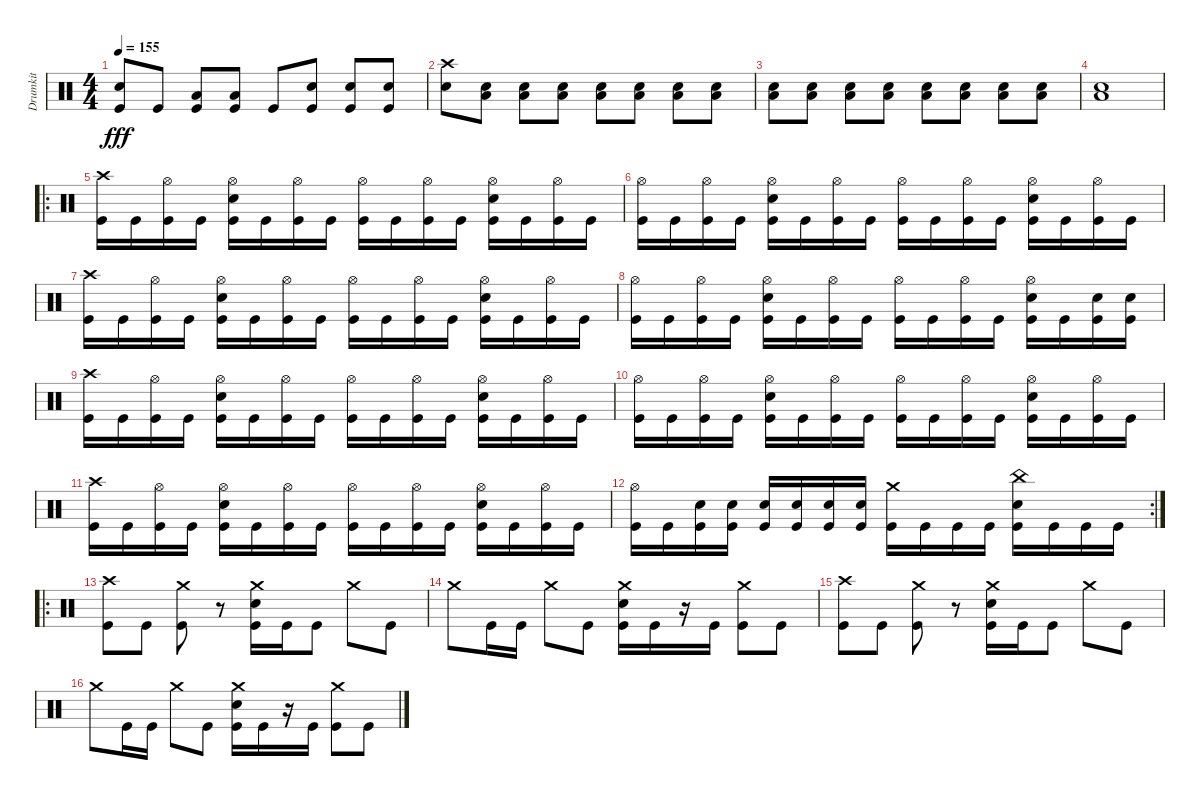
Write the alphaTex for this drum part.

\track ("Drumkit" "Drumkit") {instrument percussion}
\staff {score}
\articulation defaults
\ts (4 4)
\tempo 155
\clef neutral
\ks c
("Snare (hit) 2" "Kick (hit)").8{dy fff} "Kick (hit)".8 ("Low Tom (hit)" "Kick (hit)").8 ("Low Tom (hit)" "Kick (hit)").8 "Kick (hit)".8 ("Snare (hit) 2" "Kick (hit)").8 ("Snare (hit) 2" "Kick (hit)").8 ("Snare (hit) 2" "Kick (hit)").8 |
("Crash high (hit)" "Snare (hit) 2").8 ("Low Floor Tom (hit)" "Snare (hit) 2").8 ("Low Floor Tom (hit)" "Snare (hit) 2").8 ("Low Floor Tom (hit)" "Snare (hit) 2").8 ("Low Floor Tom (hit)" "Snare (hit) 2").8 ("Low Floor Tom (hit)" "Snare (hit) 2").8 ("Low Floor Tom (hit)" "Snare (hit) 2").8 ("Low Floor Tom (hit)" "Snare (hit) 2").8 |
("Low Floor Tom (hit)" "Snare (hit) 2").8 ("Low Floor Tom (hit)" "Snare (hit) 2").8 ("Low Floor Tom (hit)" "Snare (hit) 2").8 ("Low Floor Tom (hit)" "Snare (hit) 2").8 ("Low Floor Tom (hit)" "Snare (hit) 2").8 ("Low Floor Tom (hit)" "Snare (hit) 2").8 ("Low Floor Tom (hit)" "Snare (hit) 2").8 ("Low Floor Tom (hit)" "Snare (hit) 2").8 |
("Low Floor Tom (hit)" "Snare (hit) 2").1 |
\ro
("Crash high (hit)" "Kick (hit)").16 "Kick (hit)".16 ("Hi-Hat (open)" "Kick (hit)").16 "Kick (hit)".16 ("Hi-Hat (open)" "Snare (hit) 2" "Kick (hit)").16 "Kick (hit)".16 ("Hi-Hat (open)" "Kick (hit)").16 "Kick (hit)".16 ("Hi-Hat (open)" "Kick (hit)").16 "Kick (hit)".16 ("Hi-Hat (open)" "Kick (hit)").16 "Kick (hit)".16 ("Hi-Hat (open)" "Snare (hit) 2" "Kick (hit)").16 "Kick (hit)".16 ("Hi-Hat (open)" "Kick (hit)").16 "Kick (hit)".16 |
("Hi-Hat (open)" "Kick (hit)").16 "Kick (hit)".16 ("Hi-Hat (open)" "Kick (hit)").16 "Kick (hit)".16 ("Hi-Hat (open)" "Snare (hit) 2" "Kick (hit)").16 "Kick (hit)".16 ("Hi-Hat (open)" "Kick (hit)").16 "Kick (hit)".16 ("Hi-Hat (open)" "Kick (hit)").16 "Kick (hit)".16 ("Hi-Hat (open)" "Kick (hit)").16 "Kick (hit)".16 ("Hi-Hat (open)" "Snare (hit) 2" "Kick (hit)").16 "Kick (hit)".16 ("Hi-Hat (open)" "Kick (hit)").16 "Kick (hit)".16 |
("Crash high (hit)" "Kick (hit)").16 "Kick (hit)".16 ("Hi-Hat (open)" "Kick (hit)").16 "Kick (hit)".16 ("Hi-Hat (open)" "Snare (hit) 2" "Kick (hit)").16 "Kick (hit)".16 ("Hi-Hat (open)" "Kick (hit)").16 "Kick (hit)".16 ("Hi-Hat (open)" "Kick (hit)").16 "Kick (hit)".16 ("Hi-Hat (open)" "Kick (hit)").16 "Kick (hit)".16 ("Hi-Hat (open)" "Snare (hit) 2" "Kick (hit)").16 "Kick (hit)".16 ("Hi-Hat (open)" "Kick (hit)").16 "Kick (hit)".16 |
("Hi-Hat (open)" "Kick (hit)").16 "Kick (hit)".16 ("Hi-Hat (open)" "Kick (hit)").16 "Kick (hit)".16 ("Hi-Hat (open)" "Snare (hit) 2" "Kick (hit)").16 "Kick (hit)".16 ("Hi-Hat (open)" "Kick (hit)").16 "Kick (hit)".16 ("Hi-Hat (open)" "Kick (hit)").16 "Kick (hit)".16 ("Hi-Hat (open)" "Kick (hit)").16 "Kick (hit)".16 ("Hi-Hat (open)" "Snare (hit) 2" "Kick (hit)").16 "Kick (hit)".16 ("Snare (hit) 2" "Kick (hit)").16 ("Snare (hit) 2" "Kick (hit)").16 |
("Crash high (hit)" "Kick (hit)").16 "Kick (hit)".16 ("Hi-Hat (open)" "Kick (hit)").16 "Kick (hit)".16 ("Hi-Hat (open)" "Snare (hit) 2" "Kick (hit)").16 "Kick (hit)".16 ("Hi-Hat (open)" "Kick (hit)").16 "Kick (hit)".16 ("Hi-Hat (open)" "Kick (hit)").16 "Kick (hit)".16 ("Hi-Hat (open)" "Kick (hit)").16 "Kick (hit)".16 ("Hi-Hat (open)" "Snare (hit) 2" "Kick (hit)").16 "Kick (hit)".16 ("Hi-Hat (open)" "Kick (hit)").16 "Kick (hit)".16 |
("Hi-Hat (open)" "Kick (hit)").16 "Kick (hit)".16 ("Hi-Hat (open)" "Kick (hit)").16 "Kick (hit)".16 ("Hi-Hat (open)" "Snare (hit) 2" "Kick (hit)").16 "Kick (hit)".16 ("Hi-Hat (open)" "Kick (hit)").16 "Kick (hit)".16 ("Hi-Hat (open)" "Kick (hit)").16 "Kick (hit)".16 ("Hi-Hat (open)" "Kick (hit)").16 "Kick (hit)".16 ("Hi-Hat (open)" "Snare (hit) 2" "Kick (hit)").16 "Kick (hit)".16 ("Hi-Hat (open)" "Kick (hit)").16 "Kick (hit)".16 |
("Crash high (hit)" "Kick (hit)").16 "Kick (hit)".16 ("Hi-Hat (open)" "Kick (hit)").16 "Kick (hit)".16 ("Hi-Hat (open)" "Snare (hit) 2" "Kick (hit)").16 "Kick (hit)".16 ("Hi-Hat (open)" "Kick (hit)").16 "Kick (hit)".16 ("Hi-Hat (open)" "Kick (hit)").16 "Kick (hit)".16 ("Hi-Hat (open)" "Kick (hit)").16 "Kick (hit)".16 ("Hi-Hat (open)" "Snare (hit) 2" "Kick (hit)").16 "Kick (hit)".16 ("Hi-Hat (open)" "Kick (hit)").16 "Kick (hit)".16 |
\rc 2
("Hi-Hat (open)" "Kick (hit)").16 "Kick (hit)".16 ("Snare (hit) 2" "Kick (hit)").16 ("Snare (hit) 2" "Kick (hit)").16 ("Snare (hit) 2" "Kick (hit)").16 ("Snare (hit) 2" "Kick (hit)").16 ("Snare (hit) 2" "Kick (hit)").16 ("Snare (hit) 2" "Kick (hit)").16 ("Crash medium (hit)" "Kick (hit)").16 "Kick (hit)".16 "Kick (hit)".16 "Kick (hit)".16 ("China (hit)" "Snare (hit) 2" "Kick (hit)").16 "Kick (hit)".16 "Kick (hit)".16 "Kick (hit)".16 |
\ro
("Crash high (hit)" "Kick (hit)").8 "Kick (hit)".8 ("Crash medium (hit)" "Kick (hit)").8 r.8 ("Crash medium (hit)" "Snare (hit) 2" "Kick (hit)").16 "Kick (hit)".16 "Kick (hit)".8 "Crash medium (hit)".8 "Kick (hit)".8 |
"Crash medium (hit)".8 "Kick (hit)".16 "Kick (hit)".16 "Crash medium (hit)".8 "Kick (hit)".8 ("Crash medium (hit)" "Snare (hit) 2" "Kick (hit)").16 "Kick (hit)".16 r.16 "Kick (hit)".16 ("Crash medium (hit)" "Kick (hit)").8 "Kick (hit)".8 |
("Crash high (hit)" "Kick (hit)").8 "Kick (hit)".8 ("Crash medium (hit)" "Kick (hit)").8 r.8 ("Crash medium (hit)" "Snare (hit) 2" "Kick (hit)").16 "Kick (hit)".16 "Kick (hit)".8 "Crash medium (hit)".8 "Kick (hit)".8 |
"Crash medium (hit)".8 "Kick (hit)".16 "Kick (hit)".16 "Crash medium (hit)".8 "Kick (hit)".8 ("Crash medium (hit)" "Snare (hit) 2" "Kick (hit)").16 "Kick (hit)".16 r.16 "Kick (hit)".16 ("Crash medium (hit)" "Kick (hit)").8 "Kick (hit)".8
